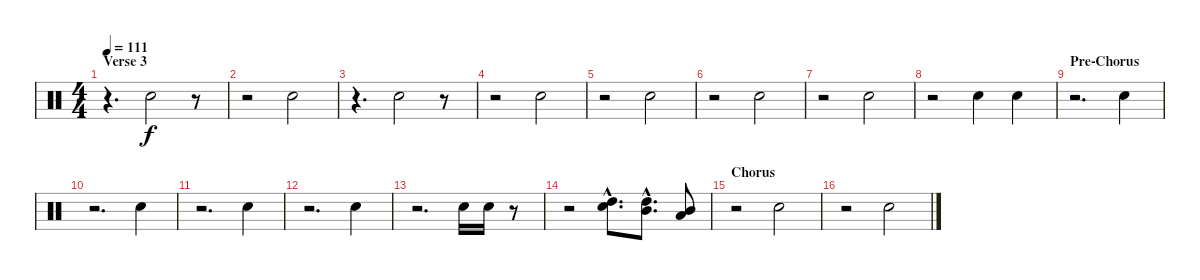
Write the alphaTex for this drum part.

\track "" {instrument percussion}
\staff {score}
\articulation defaults
\ts (4 4)
\section ("" "Verse 3")
\tempo 111
\clef neutral
\ks c
r.4{d dy f} "Electric Snare (hit)".2 r.8 |
r.2 "Electric Snare (hit)".2 |
r.4{d} "Electric Snare (hit)".2 r.8 |
r.2 "Electric Snare (hit)".2 |
r.2 "Electric Snare (hit)".2 |
r.2 "Electric Snare (hit)".2 |
r.2 "Electric Snare (hit)".2 |
r.2 "Electric Snare (hit)".4 "Electric Snare (hit)".4 |
\section ("" "Pre-Chorus")
r.2{d} "Electric Snare (hit)".4 |
r.2{d} "Electric Snare (hit)".4 |
r.2{d} "Electric Snare (hit)".4 |
r.2{d} "Electric Snare (hit)".4 |
r.2{d} "Electric Snare (hit)".16 "Electric Snare (hit)".16 r.8 |
r.2 ("High Tom (hit)"{hac} "Electric Snare (hit)"{hac}).8{d} ("Mid Tom (hit)"{hac} "High Tom (hit)"{hac}).8{d} ("Low Tom (hit)" "Mid Tom (hit)").8 |
\section ("" "Chorus")
r.2 "Electric Snare (hit)".2 |
r.2 "Electric Snare (hit)".2
